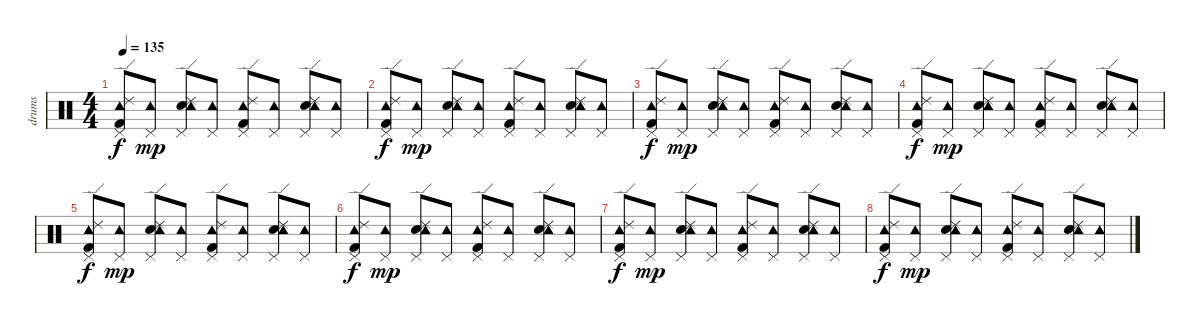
\track ("drums" "drums") {instrument percussion}
\staff {score}
\articulation defaults
\ts (4 4)
\tempo 135
\clef neutral
\ks c
("Ride (edge) 2" "Kick (hit) 2" "Pedal Hi-Hat (hit)" "Tambourine (hit)").8{dy f} ("Pedal Hi-Hat (hit)" "Tambourine (hit)").8{dy mp} ("Electric Snare (hit)" "Ride (edge) 2" "Pedal Hi-Hat (hit)" "Tambourine (hit)").8 ("Pedal Hi-Hat (hit)" "Tambourine (hit)").8 ("Ride (edge) 2" "Kick (hit) 2" "Pedal Hi-Hat (hit)" "Tambourine (hit)").8 ("Pedal Hi-Hat (hit)" "Tambourine (hit)").8 ("Electric Snare (hit)" "Ride (edge) 2" "Pedal Hi-Hat (hit)" "Tambourine (hit)").8 ("Pedal Hi-Hat (hit)" "Tambourine (hit)").8 |
("Ride (edge) 2" "Kick (hit) 2" "Pedal Hi-Hat (hit)" "Tambourine (hit)").8{dy f} ("Pedal Hi-Hat (hit)" "Tambourine (hit)").8{dy mp} ("Electric Snare (hit)" "Ride (edge) 2" "Pedal Hi-Hat (hit)" "Tambourine (hit)").8 ("Pedal Hi-Hat (hit)" "Tambourine (hit)").8 ("Ride (edge) 2" "Kick (hit) 2" "Pedal Hi-Hat (hit)" "Tambourine (hit)").8 ("Pedal Hi-Hat (hit)" "Tambourine (hit)").8 ("Electric Snare (hit)" "Ride (edge) 2" "Pedal Hi-Hat (hit)" "Tambourine (hit)").8 ("Pedal Hi-Hat (hit)" "Tambourine (hit)").8 |
("Ride (edge) 2" "Kick (hit) 2" "Pedal Hi-Hat (hit)" "Tambourine (hit)").8{dy f volume 2} ("Pedal Hi-Hat (hit)" "Tambourine (hit)").8{dy mp} ("Electric Snare (hit)" "Ride (edge) 2" "Pedal Hi-Hat (hit)" "Tambourine (hit)").8 ("Pedal Hi-Hat (hit)" "Tambourine (hit)").8 ("Ride (edge) 2" "Kick (hit) 2" "Pedal Hi-Hat (hit)" "Tambourine (hit)").8 ("Pedal Hi-Hat (hit)" "Tambourine (hit)").8 ("Electric Snare (hit)" "Ride (edge) 2" "Pedal Hi-Hat (hit)" "Tambourine (hit)").8 ("Pedal Hi-Hat (hit)" "Tambourine (hit)").8 |
("Ride (edge) 2" "Kick (hit) 2" "Pedal Hi-Hat (hit)" "Tambourine (hit)").8{dy f} ("Pedal Hi-Hat (hit)" "Tambourine (hit)").8{dy mp} ("Electric Snare (hit)" "Ride (edge) 2" "Pedal Hi-Hat (hit)" "Tambourine (hit)").8 ("Pedal Hi-Hat (hit)" "Tambourine (hit)").8 ("Ride (edge) 2" "Kick (hit) 2" "Pedal Hi-Hat (hit)" "Tambourine (hit)").8 ("Pedal Hi-Hat (hit)" "Tambourine (hit)").8 ("Electric Snare (hit)" "Ride (edge) 2" "Pedal Hi-Hat (hit)" "Tambourine (hit)").8 ("Pedal Hi-Hat (hit)" "Tambourine (hit)").8 |
("Ride (edge) 2" "Kick (hit) 2" "Pedal Hi-Hat (hit)" "Tambourine (hit)").8{dy f} ("Pedal Hi-Hat (hit)" "Tambourine (hit)").8{dy mp} ("Electric Snare (hit)" "Ride (edge) 2" "Pedal Hi-Hat (hit)" "Tambourine (hit)").8 ("Pedal Hi-Hat (hit)" "Tambourine (hit)").8 ("Ride (edge) 2" "Kick (hit) 2" "Pedal Hi-Hat (hit)" "Tambourine (hit)").8 ("Pedal Hi-Hat (hit)" "Tambourine (hit)").8 ("Electric Snare (hit)" "Ride (edge) 2" "Pedal Hi-Hat (hit)" "Tambourine (hit)").8 ("Pedal Hi-Hat (hit)" "Tambourine (hit)").8 |
("Ride (edge) 2" "Kick (hit) 2" "Pedal Hi-Hat (hit)" "Tambourine (hit)").8{dy f} ("Pedal Hi-Hat (hit)" "Tambourine (hit)").8{dy mp} ("Electric Snare (hit)" "Ride (edge) 2" "Pedal Hi-Hat (hit)" "Tambourine (hit)").8 ("Pedal Hi-Hat (hit)" "Tambourine (hit)").8 ("Ride (edge) 2" "Kick (hit) 2" "Pedal Hi-Hat (hit)" "Tambourine (hit)").8 ("Pedal Hi-Hat (hit)" "Tambourine (hit)").8 ("Electric Snare (hit)" "Ride (edge) 2" "Pedal Hi-Hat (hit)" "Tambourine (hit)").8 ("Pedal Hi-Hat (hit)" "Tambourine (hit)").8 |
("Ride (edge) 2" "Kick (hit) 2" "Pedal Hi-Hat (hit)" "Tambourine (hit)").8{dy f volume 0} ("Pedal Hi-Hat (hit)" "Tambourine (hit)").8{dy mp} ("Electric Snare (hit)" "Ride (edge) 2" "Pedal Hi-Hat (hit)" "Tambourine (hit)").8 ("Pedal Hi-Hat (hit)" "Tambourine (hit)").8 ("Ride (edge) 2" "Kick (hit) 2" "Pedal Hi-Hat (hit)" "Tambourine (hit)").8 ("Pedal Hi-Hat (hit)" "Tambourine (hit)").8 ("Electric Snare (hit)" "Ride (edge) 2" "Pedal Hi-Hat (hit)" "Tambourine (hit)").8 ("Pedal Hi-Hat (hit)" "Tambourine (hit)").8 |
("Ride (edge) 2" "Kick (hit) 2" "Pedal Hi-Hat (hit)" "Tambourine (hit)").8{dy f} ("Pedal Hi-Hat (hit)" "Tambourine (hit)").8{dy mp} ("Electric Snare (hit)" "Ride (edge) 2" "Pedal Hi-Hat (hit)" "Tambourine (hit)").8 ("Pedal Hi-Hat (hit)" "Tambourine (hit)").8 ("Ride (edge) 2" "Kick (hit) 2" "Pedal Hi-Hat (hit)" "Tambourine (hit)").8 ("Pedal Hi-Hat (hit)" "Tambourine (hit)").8 ("Electric Snare (hit)" "Ride (edge) 2" "Pedal Hi-Hat (hit)" "Tambourine (hit)").8 ("Pedal Hi-Hat (hit)" "Tambourine (hit)").8
